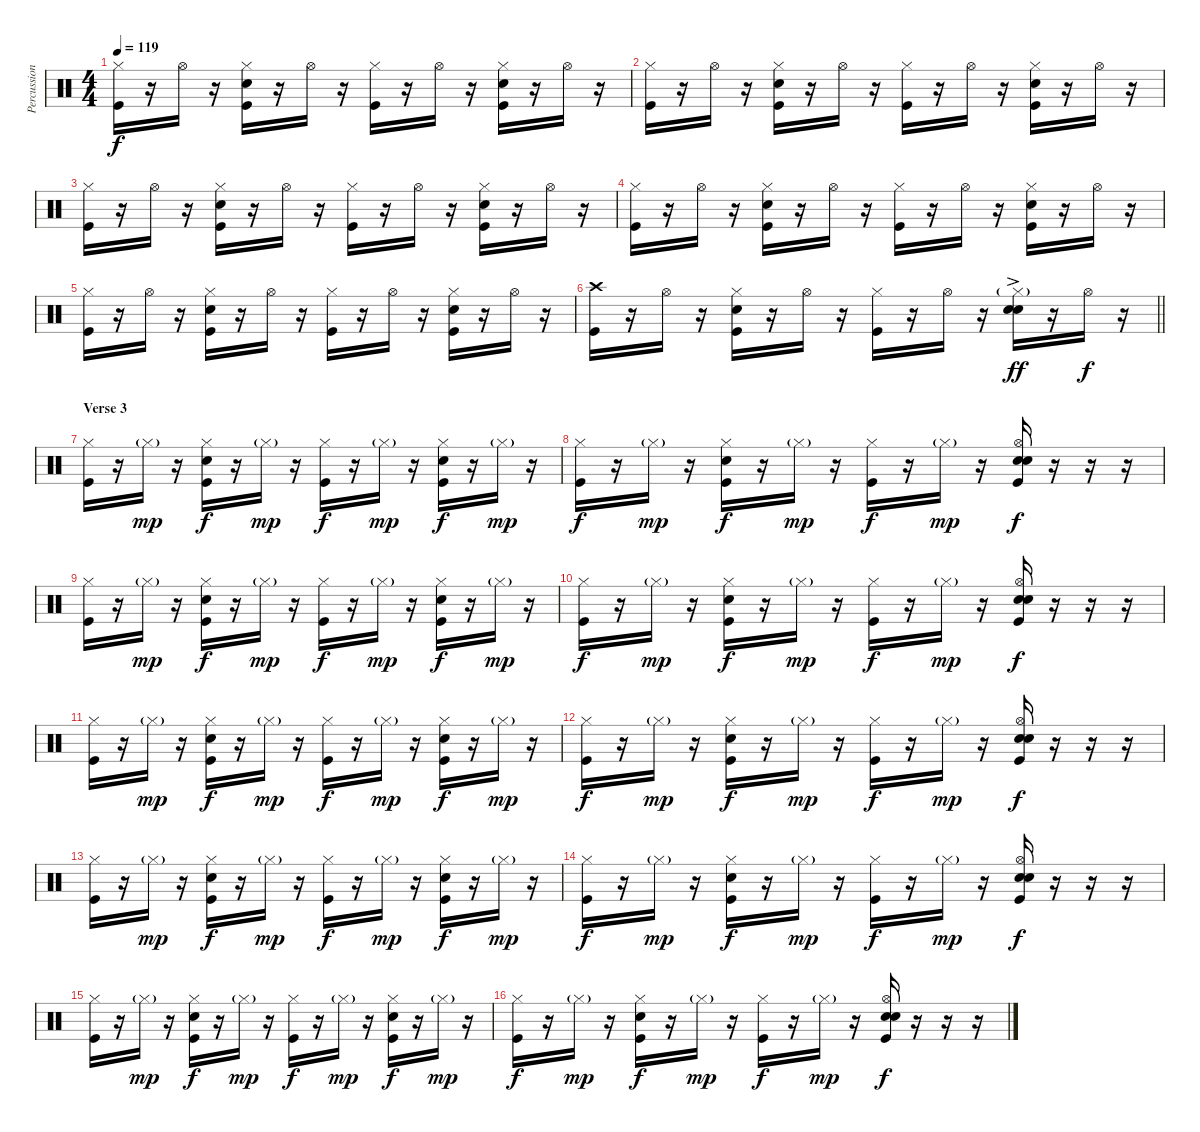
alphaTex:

\track ("Percussion" "Percussion") {instrument percussion}
\staff {score}
\articulation defaults
\ts (4 4)
\tempo 119
\clef neutral
\ks c
("Hi-Hat (closed)" "Kick (hit)").16{dy f} r.16 "Hi-Hat (open)".16 r.16 ("Hi-Hat (closed)" "Snare (hit) 2" "Kick (hit)").16 r.16 "Hi-Hat (open)".16 r.16 ("Hi-Hat (closed)" "Kick (hit)").16 r.16 "Hi-Hat (open)".16 r.16 ("Hi-Hat (closed)" "Snare (hit) 2" "Kick (hit)").16 r.16 "Hi-Hat (open)".16 r.16 |
("Hi-Hat (closed)" "Kick (hit)").16 r.16 "Hi-Hat (open)".16 r.16 ("Hi-Hat (closed)" "Snare (hit) 2" "Kick (hit)").16 r.16 "Hi-Hat (open)".16 r.16 ("Hi-Hat (closed)" "Kick (hit)").16 r.16 "Hi-Hat (open)".16 r.16 ("Hi-Hat (closed)" "Snare (hit) 2" "Kick (hit)").16 r.16 "Hi-Hat (open)".16 r.16 |
("Hi-Hat (closed)" "Kick (hit)").16 r.16 "Hi-Hat (open)".16 r.16 ("Hi-Hat (closed)" "Snare (hit) 2" "Kick (hit)").16 r.16 "Hi-Hat (open)".16 r.16 ("Hi-Hat (closed)" "Kick (hit)").16 r.16 "Hi-Hat (open)".16 r.16 ("Hi-Hat (closed)" "Snare (hit) 2" "Kick (hit)").16 r.16 "Hi-Hat (open)".16 r.16 |
("Hi-Hat (closed)" "Kick (hit)").16 r.16 "Hi-Hat (open)".16 r.16 ("Hi-Hat (closed)" "Snare (hit) 2" "Kick (hit)").16 r.16 "Hi-Hat (open)".16 r.16 ("Hi-Hat (closed)" "Kick (hit)").16 r.16 "Hi-Hat (open)".16 r.16 ("Hi-Hat (closed)" "Snare (hit) 2" "Kick (hit)").16 r.16 "Hi-Hat (open)".16 r.16 |
("Hi-Hat (closed)" "Kick (hit)").16 r.16 "Hi-Hat (open)".16 r.16 ("Hi-Hat (closed)" "Snare (hit) 2" "Kick (hit)").16 r.16 "Hi-Hat (open)".16 r.16 ("Hi-Hat (closed)" "Kick (hit)").16 r.16 "Hi-Hat (open)".16 r.16 ("Hi-Hat (closed)" "Snare (hit) 2" "Kick (hit)").16 r.16 "Hi-Hat (open)".16 r.16 |
\barLineRight lightlight
("Crash high (hit)" "Kick (hit)").16 r.16 "Hi-Hat (open)".16 r.16 ("Hi-Hat (closed)" "Snare (hit) 2" "Kick (hit)").16 r.16 "Hi-Hat (open)".16 r.16 ("Hi-Hat (closed)" "Kick (hit)").16 r.16 "Hi-Hat (open)".16 r.16 ("Hi-Hat (closed)"{g} "Hand Clap (hit)" "Snare (hit) 2"{ac}).16{dy ff} r.16 "Hi-Hat (open)".16{dy f} r.16 |
\section ("" "Verse 3")
("Hi-Hat (closed)" "Kick (hit)").16 r.16 "Hi-Hat (closed)"{g}.16{dy mp} r.16 ("Hi-Hat (closed)" "Snare (hit) 2" "Kick (hit)").16{dy f} r.16 "Hi-Hat (closed)"{g}.16{dy mp} r.16 ("Hi-Hat (closed)" "Kick (hit)").16{dy f} r.16 "Hi-Hat (closed)"{g}.16{dy mp} r.16 ("Hi-Hat (closed)" "Snare (hit) 2" "Kick (hit)").16{dy f} r.16 "Hi-Hat (closed)"{g}.16{dy mp} r.16 |
("Hi-Hat (closed)" "Kick (hit)").16{dy f} r.16 "Hi-Hat (closed)"{g}.16{dy mp} r.16 ("Hi-Hat (closed)" "Snare (hit) 2" "Kick (hit)").16{dy f} r.16 "Hi-Hat (closed)"{g}.16{dy mp} r.16 ("Hi-Hat (closed)" "Kick (hit)").16{dy f} r.16 "Hi-Hat (closed)"{g}.16{dy mp} r.16 ("Hi-Hat (open)" "Hand Clap (hit)" "Snare (hit) 2" "Kick (hit)").16{dy f} r.16 r.16 r.16 |
("Hi-Hat (closed)" "Kick (hit)").16 r.16 "Hi-Hat (closed)"{g}.16{dy mp} r.16 ("Hi-Hat (closed)" "Snare (hit) 2" "Kick (hit)").16{dy f} r.16 "Hi-Hat (closed)"{g}.16{dy mp} r.16 ("Hi-Hat (closed)" "Kick (hit)").16{dy f} r.16 "Hi-Hat (closed)"{g}.16{dy mp} r.16 ("Hi-Hat (closed)" "Snare (hit) 2" "Kick (hit)").16{dy f} r.16 "Hi-Hat (closed)"{g}.16{dy mp} r.16 |
("Hi-Hat (closed)" "Kick (hit)").16{dy f} r.16 "Hi-Hat (closed)"{g}.16{dy mp} r.16 ("Hi-Hat (closed)" "Snare (hit) 2" "Kick (hit)").16{dy f} r.16 "Hi-Hat (closed)"{g}.16{dy mp} r.16 ("Hi-Hat (closed)" "Kick (hit)").16{dy f} r.16 "Hi-Hat (closed)"{g}.16{dy mp} r.16 ("Hi-Hat (open)" "Hand Clap (hit)" "Snare (hit) 2" "Kick (hit)").16{dy f} r.16 r.16 r.16 |
("Hi-Hat (closed)" "Kick (hit)").16 r.16 "Hi-Hat (closed)"{g}.16{dy mp} r.16 ("Hi-Hat (closed)" "Snare (hit) 2" "Kick (hit)").16{dy f} r.16 "Hi-Hat (closed)"{g}.16{dy mp} r.16 ("Hi-Hat (closed)" "Kick (hit)").16{dy f} r.16 "Hi-Hat (closed)"{g}.16{dy mp} r.16 ("Hi-Hat (closed)" "Snare (hit) 2" "Kick (hit)").16{dy f} r.16 "Hi-Hat (closed)"{g}.16{dy mp} r.16 |
("Hi-Hat (closed)" "Kick (hit)").16{dy f} r.16 "Hi-Hat (closed)"{g}.16{dy mp} r.16 ("Hi-Hat (closed)" "Snare (hit) 2" "Kick (hit)").16{dy f} r.16 "Hi-Hat (closed)"{g}.16{dy mp} r.16 ("Hi-Hat (closed)" "Kick (hit)").16{dy f} r.16 "Hi-Hat (closed)"{g}.16{dy mp} r.16 ("Hi-Hat (open)" "Hand Clap (hit)" "Snare (hit) 2" "Kick (hit)").16{dy f} r.16 r.16 r.16 |
("Hi-Hat (closed)" "Kick (hit)").16 r.16 "Hi-Hat (closed)"{g}.16{dy mp} r.16 ("Hi-Hat (closed)" "Snare (hit) 2" "Kick (hit)").16{dy f} r.16 "Hi-Hat (closed)"{g}.16{dy mp} r.16 ("Hi-Hat (closed)" "Kick (hit)").16{dy f} r.16 "Hi-Hat (closed)"{g}.16{dy mp} r.16 ("Hi-Hat (closed)" "Snare (hit) 2" "Kick (hit)").16{dy f} r.16 "Hi-Hat (closed)"{g}.16{dy mp} r.16 |
("Hi-Hat (closed)" "Kick (hit)").16{dy f} r.16 "Hi-Hat (closed)"{g}.16{dy mp} r.16 ("Hi-Hat (closed)" "Snare (hit) 2" "Kick (hit)").16{dy f} r.16 "Hi-Hat (closed)"{g}.16{dy mp} r.16 ("Hi-Hat (closed)" "Kick (hit)").16{dy f} r.16 "Hi-Hat (closed)"{g}.16{dy mp} r.16 ("Hi-Hat (open)" "Hand Clap (hit)" "Snare (hit) 2" "Kick (hit)").16{dy f} r.16 r.16 r.16 |
("Hi-Hat (closed)" "Kick (hit)").16 r.16 "Hi-Hat (closed)"{g}.16{dy mp} r.16 ("Hi-Hat (closed)" "Snare (hit) 2" "Kick (hit)").16{dy f} r.16 "Hi-Hat (closed)"{g}.16{dy mp} r.16 ("Hi-Hat (closed)" "Kick (hit)").16{dy f} r.16 "Hi-Hat (closed)"{g}.16{dy mp} r.16 ("Hi-Hat (closed)" "Snare (hit) 2" "Kick (hit)").16{dy f} r.16 "Hi-Hat (closed)"{g}.16{dy mp} r.16 |
("Hi-Hat (closed)" "Kick (hit)").16{dy f} r.16 "Hi-Hat (closed)"{g}.16{dy mp} r.16 ("Hi-Hat (closed)" "Snare (hit) 2" "Kick (hit)").16{dy f} r.16 "Hi-Hat (closed)"{g}.16{dy mp} r.16 ("Hi-Hat (closed)" "Kick (hit)").16{dy f} r.16 "Hi-Hat (closed)"{g}.16{dy mp} r.16 ("Hi-Hat (open)" "Hand Clap (hit)" "Snare (hit) 2" "Kick (hit)").16{dy f} r.16 r.16 r.16
